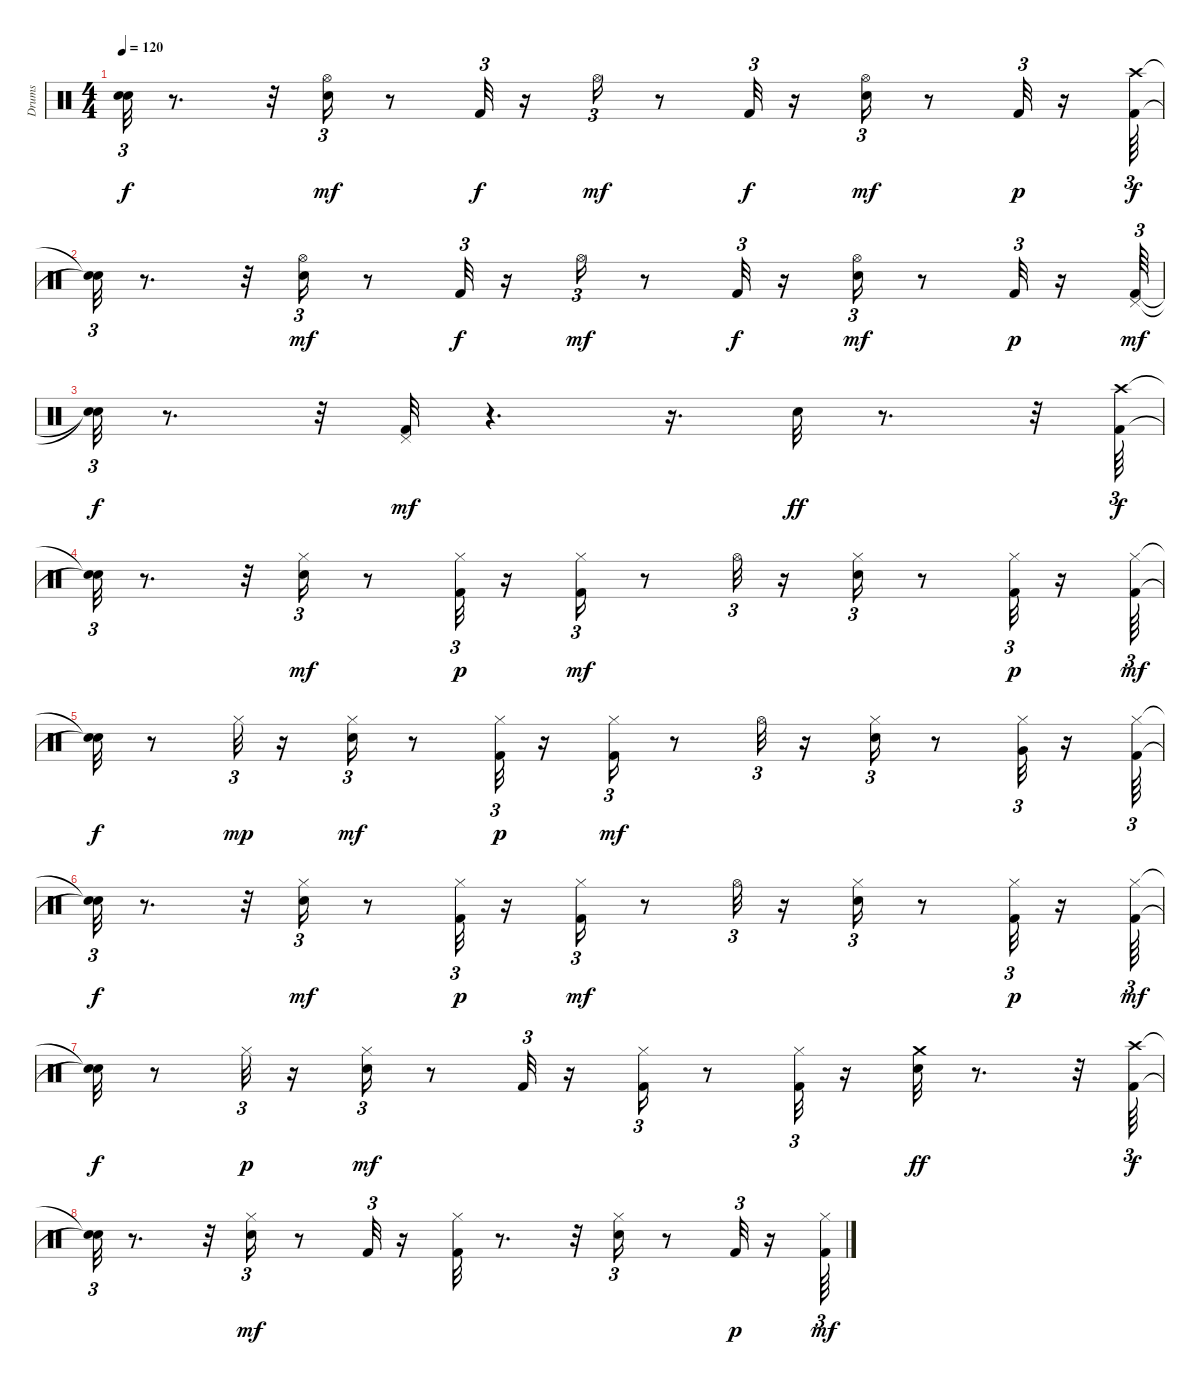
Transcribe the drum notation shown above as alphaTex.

\track ("Drums" "Drums") {instrument percussion}
\staff {score}
\articulation defaults
\ts (4 4)
\tempo 120
\clef neutral
\ks c
("Snare (hit)"{t} "Snare (hit)"{t}).32{tu (3 2) dy f} r.8{d} r.32 ("Electric Snare (hit)" "Hi-Hat (open)").16{tu (3 2) dy mf} r.8 "Kick (hit) 2".32{tu (3 2) dy f} r.16 "Hi-Hat (open)".16{tu (3 2) dy mf} r.8 "Kick (hit) 2".32{tu (3 2) dy f} r.16 ("Electric Snare (hit)" "Hi-Hat (open)").16{tu (3 2) dy mf} r.8 "Kick (hit) 2".32{tu (3 2) dy p} r.16 ("Kick (hit) 2" "Crash high (hit)").64{tu (3 2) dy f} |
("Snare (hit)"{t} "Snare (hit)"{t}).32{tu (3 2)} r.8{d} r.32 ("Electric Snare (hit)" "Hi-Hat (open)").16{tu (3 2) dy mf} r.8 "Kick (hit) 2".32{tu (3 2) dy f} r.16 "Hi-Hat (open)".16{tu (3 2) dy mf} r.8 "Kick (hit) 2".32{tu (3 2) dy f} r.16 ("Electric Snare (hit)" "Hi-Hat (open)").16{tu (3 2) dy mf} r.8 "Kick (hit) 2".32{tu (3 2) dy p} r.16 ("Kick (hit) 2" "Pedal Hi-Hat (hit)").64{tu (3 2) dy mf} |
("Snare (hit)"{t} "Snare (hit)"{t}).32{tu (3 2) dy f} r.8{d} r.32 ("Kick (hit) 2" "Pedal Hi-Hat (hit)").32{dy mf} r.4{d} r.16{d} "Electric Snare (hit)".32{dy ff} r.8{d} r.32 ("Kick (hit) 2" "Crash high (hit)").64{tu (3 2) dy f} |
("Snare (hit)"{t} "Snare (hit)"{t}).32{tu (3 2)} r.8{d} r.32 ("Electric Snare (hit)" "Hi-Hat (closed)").16{tu (3 2) dy mf} r.8 ("Kick (hit) 2" "Hi-Hat (closed)").32{tu (3 2) dy p} r.16 ("Kick (hit) 2" "Hi-Hat (closed)").16{tu (3 2) dy mf} r.8 "Hi-Hat (open)".32{tu (3 2)} r.16 ("Electric Snare (hit)" "Hi-Hat (closed)").16{tu (3 2)} r.8 ("Kick (hit) 2" "Hi-Hat (closed)").32{tu (3 2) dy p} r.16 ("Kick (hit) 2" "Hi-Hat (closed)").64{tu (3 2) dy mf} |
("Snare (hit)"{t} "Snare (hit)"{t}).32{dy f} r.8 "Hi-Hat (closed)".32{tu (3 2) dy mp} r.16 ("Electric Snare (hit)" "Hi-Hat (closed)").16{tu (3 2) dy mf} r.8 ("Kick (hit) 2" "Hi-Hat (closed)").32{tu (3 2) dy p} r.16 ("Kick (hit) 2" "Hi-Hat (closed)").16{tu (3 2) dy mf} r.8 "Hi-Hat (open)".32{tu (3 2)} r.16 ("Electric Snare (hit)" "Hi-Hat (closed)").16{tu (3 2)} r.8 ("Hi-Hat (closed)" "Very Low Tom (hit)").32{tu (3 2)} r.16 ("Kick (hit) 2" "Hi-Hat (closed)").64{tu (3 2)} |
("Snare (hit)"{t} "Snare (hit)"{t}).32{tu (3 2) dy f} r.8{d} r.32 ("Electric Snare (hit)" "Hi-Hat (closed)").16{tu (3 2) dy mf} r.8 ("Kick (hit) 2" "Hi-Hat (closed)").32{tu (3 2) dy p} r.16 ("Kick (hit) 2" "Hi-Hat (closed)").16{tu (3 2) dy mf} r.8 "Hi-Hat (open)".32{tu (3 2)} r.16 ("Electric Snare (hit)" "Hi-Hat (closed)").16{tu (3 2)} r.8 ("Kick (hit) 2" "Hi-Hat (closed)").32{tu (3 2) dy p} r.16 ("Kick (hit) 2" "Hi-Hat (closed)").64{tu (3 2) dy mf} |
("Snare (hit)"{t} "Snare (hit)"{t}).32{dy f} r.8 "Hi-Hat (closed)".32{tu (3 2) dy p} r.16 ("Electric Snare (hit)" "Hi-Hat (closed)").16{tu (3 2) dy mf} r.8 "Kick (hit) 2".32{tu (3 2)} r.16 ("Kick (hit) 2" "Hi-Hat (closed)").16{tu (3 2)} r.8 ("Kick (hit) 2" "Hi-Hat (closed)").32{tu (3 2)} r.16 ("Electric Snare (hit)" "Crash medium (hit)").32{dy ff} r.8{d} r.32 ("Kick (hit) 2" "Crash high (hit)").64{tu (3 2) dy f} |
("Snare (hit)"{t} "Snare (hit)"{t}).32{tu (3 2)} r.8{d} r.32 ("Electric Snare (hit)" "Hi-Hat (closed)").16{tu (3 2) dy mf} r.8 "Kick (hit) 2".32{tu (3 2)} r.16 ("Kick (hit) 2" "Hi-Hat (closed)").32 r.8{d} r.32 ("Electric Snare (hit)" "Hi-Hat (closed)").16{tu (3 2)} r.8 "Kick (hit) 2".32{tu (3 2) dy p} r.16 ("Kick (hit) 2" "Hi-Hat (closed)").64{tu (3 2) dy mf}
